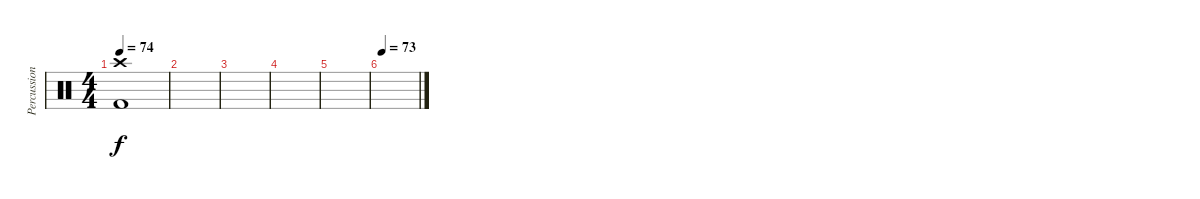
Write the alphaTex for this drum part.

\track ("Percussion" "Percussion") {instrument percussion}
\staff {score}
\articulation defaults
\ts (4 4)
\tempo 74
\clef neutral
\ks c
("Crash high (hit)" "Kick (hit) 2").1{dy f} |
|
|
|
|
\tempo 73
